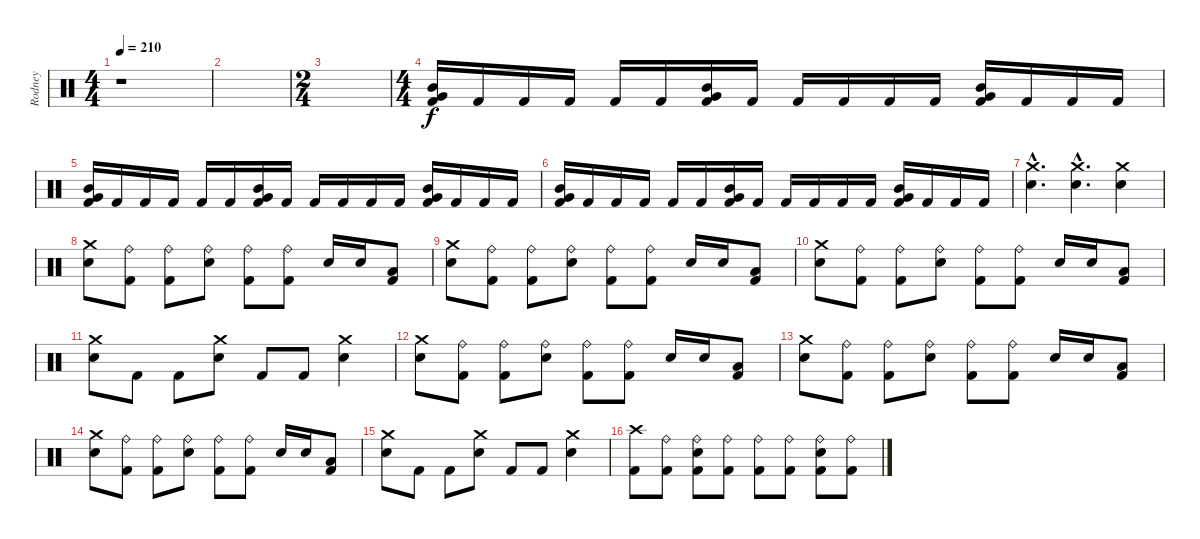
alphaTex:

\track ("Rodney" "Rodney") {instrument percussion}
\staff {score}
\articulation defaults
\ts (4 4)
\tempo 210
\clef neutral
\ks c
r.1{dy f} |
|
\ts (2 4)
|
\ts (4 4)
("Mid Tom (hit)" "Very Low Tom (hit)" "Kick (hit) 2").16 "Kick (hit) 2".16 "Kick (hit) 2".16 "Kick (hit) 2".16 "Kick (hit) 2".16 "Kick (hit) 2".16 ("Mid Tom (hit)" "Very Low Tom (hit)" "Kick (hit) 2").16 "Kick (hit) 2".16 "Kick (hit) 2".16 "Kick (hit) 2".16 "Kick (hit) 2".16 "Kick (hit) 2".16 ("Mid Tom (hit)" "Very Low Tom (hit)" "Kick (hit) 2").16 "Kick (hit) 2".16 "Kick (hit) 2".16 "Kick (hit) 2".16 |
("Mid Tom (hit)" "Very Low Tom (hit)" "Kick (hit) 2").16 "Kick (hit) 2".16 "Kick (hit) 2".16 "Kick (hit) 2".16 "Kick (hit) 2".16 "Kick (hit) 2".16 ("Mid Tom (hit)" "Very Low Tom (hit)" "Kick (hit) 2").16 "Kick (hit) 2".16 "Kick (hit) 2".16 "Kick (hit) 2".16 "Kick (hit) 2".16 "Kick (hit) 2".16 ("Mid Tom (hit)" "Very Low Tom (hit)" "Kick (hit) 2").16 "Kick (hit) 2".16 "Kick (hit) 2".16 "Kick (hit) 2".16 |
("Mid Tom (hit)" "Very Low Tom (hit)" "Kick (hit) 2").16 "Kick (hit) 2".16 "Kick (hit) 2".16 "Kick (hit) 2".16 "Kick (hit) 2".16 "Kick (hit) 2".16 ("Mid Tom (hit)" "Very Low Tom (hit)" "Kick (hit) 2").16 "Kick (hit) 2".16 "Kick (hit) 2".16 "Kick (hit) 2".16 "Kick (hit) 2".16 "Kick (hit) 2".16 ("Mid Tom (hit)" "Very Low Tom (hit)" "Kick (hit) 2").16 "Kick (hit) 2".16 "Kick (hit) 2".16 "Kick (hit) 2".16 |
("Crash medium (hit)"{hac} "Snare (hit) 2"{hac}).4{d} ("Crash medium (hit)"{hac} "Snare (hit) 2"{hac}).4{d} ("Crash medium (hit)" "Snare (hit) 2").4 |
("Crash medium (hit)" "Snare (hit) 2").8 ("Ride (bell)" "Kick (hit) 2").8 ("Ride (bell)" "Kick (hit) 2").8 ("Ride (bell)" "Snare (hit) 2").8 ("Ride (bell)" "Kick (hit) 2").8 ("Ride (bell)" "Kick (hit) 2").8 "Snare (hit) 2".16 "Snare (hit) 2".16 ("Low Tom (hit)" "Kick (hit) 2").8 |
("Crash medium (hit)" "Snare (hit) 2").8 ("Ride (bell)" "Kick (hit) 2").8 ("Ride (bell)" "Kick (hit) 2").8 ("Ride (bell)" "Snare (hit) 2").8 ("Ride (bell)" "Kick (hit) 2").8 ("Ride (bell)" "Kick (hit) 2").8 "Snare (hit) 2".16 "Snare (hit) 2".16 ("Low Tom (hit)" "Kick (hit) 2").8 |
("Crash medium (hit)" "Snare (hit) 2").8 ("Ride (bell)" "Kick (hit) 2").8 ("Ride (bell)" "Kick (hit) 2").8 ("Ride (bell)" "Snare (hit) 2").8 ("Ride (bell)" "Kick (hit) 2").8 ("Ride (bell)" "Kick (hit) 2").8 "Snare (hit) 2".16 "Snare (hit) 2".16 ("Low Tom (hit)" "Kick (hit) 2").8 |
("Crash medium (hit)" "Snare (hit) 2").8 "Kick (hit) 2".8 "Kick (hit) 2".8 ("Crash medium (hit)" "Snare (hit) 2").8 "Kick (hit) 2".8 "Kick (hit) 2".8 ("Crash medium (hit)" "Snare (hit) 2").4 |
("Crash medium (hit)" "Snare (hit) 2").8 ("Ride (bell)" "Kick (hit) 2").8 ("Ride (bell)" "Kick (hit) 2").8 ("Ride (bell)" "Snare (hit) 2").8 ("Ride (bell)" "Kick (hit) 2").8 ("Ride (bell)" "Kick (hit) 2").8 "Snare (hit) 2".16 "Snare (hit) 2".16 ("Low Tom (hit)" "Kick (hit) 2").8 |
("Crash medium (hit)" "Snare (hit) 2").8 ("Ride (bell)" "Kick (hit) 2").8 ("Ride (bell)" "Kick (hit) 2").8 ("Ride (bell)" "Snare (hit) 2").8 ("Ride (bell)" "Kick (hit) 2").8 ("Ride (bell)" "Kick (hit) 2").8 "Snare (hit) 2".16 "Snare (hit) 2".16 ("Low Tom (hit)" "Kick (hit) 2").8 |
("Crash medium (hit)" "Snare (hit) 2").8 ("Ride (bell)" "Kick (hit) 2").8 ("Ride (bell)" "Kick (hit) 2").8 ("Ride (bell)" "Snare (hit) 2").8 ("Ride (bell)" "Kick (hit) 2").8 ("Ride (bell)" "Kick (hit) 2").8 "Snare (hit) 2".16 "Snare (hit) 2".16 ("Low Tom (hit)" "Kick (hit) 2").8 |
("Crash medium (hit)" "Snare (hit) 2").8 "Kick (hit) 2".8 "Kick (hit) 2".8 ("Crash medium (hit)" "Snare (hit) 2").8 "Kick (hit) 2".8 "Kick (hit) 2".8 ("Crash medium (hit)" "Snare (hit) 2").4 |
("Crash high (hit)" "Kick (hit) 2").8 ("Ride (bell)" "Kick (hit) 2").8 ("Ride (bell)" "Snare (hit) 2" "Kick (hit) 2").8 ("Ride (bell)" "Kick (hit) 2").8 ("Ride (bell)" "Kick (hit) 2").8 ("Ride (bell)" "Kick (hit) 2").8 ("Ride (bell)" "Snare (hit) 2" "Kick (hit) 2").8 ("Ride (bell)" "Kick (hit) 2").8
